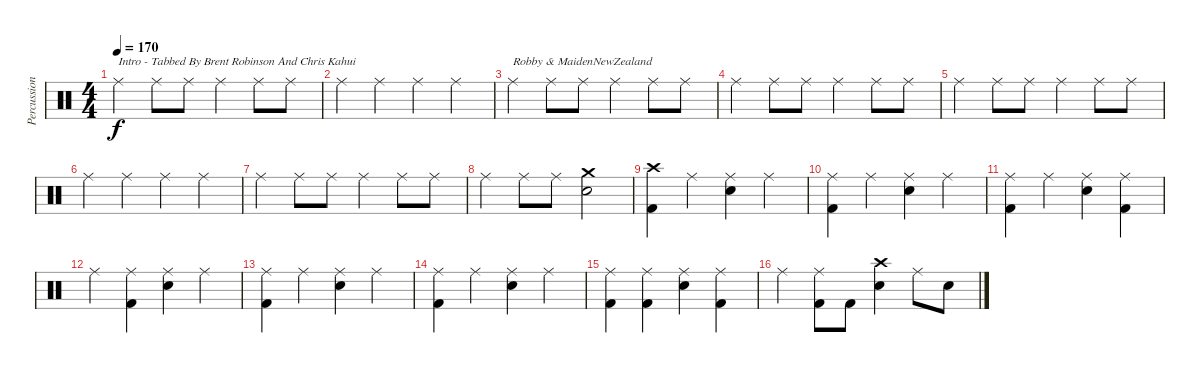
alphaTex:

\track ("Percussion" "Percussion") {instrument percussion}
\staff {score}
\articulation defaults
\ts (4 4)
\tempo 170
\clef neutral
\ks c "Ride (middle)".4{txt "Intro - Tabbed By Brent Robinson And Chris Kahui" dy f} "Ride (middle)".8 "Ride (middle)".8 "Ride (middle)".4 "Ride (middle)".8 "Ride (middle)".8
|
"Ride (middle)".4 "Ride (middle)".4 "Ride (middle)".4 "Ride (middle)".4 |
"Ride (middle)".4{txt "Robby & MaidenNewZealand"} "Ride (middle)".8 "Ride (middle)".8 "Ride (middle)".4 "Ride (middle)".8 "Ride (middle)".8 |
"Ride (middle)".4 "Ride (middle)".8 "Ride (middle)".8 "Ride (middle)".4 "Ride (middle)".8 "Ride (middle)".8 |
"Ride (middle)".4 "Ride (middle)".8 "Ride (middle)".8 "Ride (middle)".4 "Ride (middle)".8 "Ride (middle)".8 |
"Ride (middle)".4 "Ride (middle)".4 "Ride (middle)".4 "Ride (middle)".4 |
"Ride (middle)".4 "Ride (middle)".8 "Ride (middle)".8 "Ride (middle)".4 "Ride (middle)".8 "Ride (middle)".8 |
"Ride (middle)".4 "Ride (middle)".8 "Ride (middle)".8 ("Crash medium (hit)" "Snare (hit) 2").2 |
("Crash high (hit)" "Kick (hit) 2").4 "Ride (middle)".4 ("Ride (middle)" "Snare (hit) 2").4 "Ride (middle)".4 |
("Ride (middle)" "Kick (hit) 2").4 "Ride (middle)".4 ("Ride (middle)" "Snare (hit) 2").4 "Ride (middle)".4 |
("Ride (middle)" "Kick (hit) 2").4 "Ride (middle)".4 ("Ride (middle)" "Snare (hit) 2").4 ("Ride (middle)" "Kick (hit) 2").4 |
"Ride (middle)".4 ("Ride (middle)" "Kick (hit) 2").4 ("Ride (middle)" "Snare (hit) 2").4 "Ride (middle)".4 |
("Ride (middle)" "Kick (hit) 2").4 "Ride (middle)".4 ("Ride (middle)" "Snare (hit) 2").4 "Ride (middle)".4 |
("Ride (middle)" "Kick (hit) 2").4 "Ride (middle)".4 ("Ride (middle)" "Snare (hit) 2").4 "Ride (middle)".4 |
("Ride (middle)" "Kick (hit) 2").4 ("Ride (middle)" "Kick (hit) 2").4 ("Ride (middle)" "Snare (hit) 2").4 ("Ride (middle)" "Kick (hit) 2").4 |
"Ride (middle)".4 ("Ride (middle)" "Kick (hit) 2").8 "Kick (hit) 2".8 ("Crash high (hit)" "Snare (hit) 2").4 "Ride (middle)".8 "Snare (hit) 2".8
